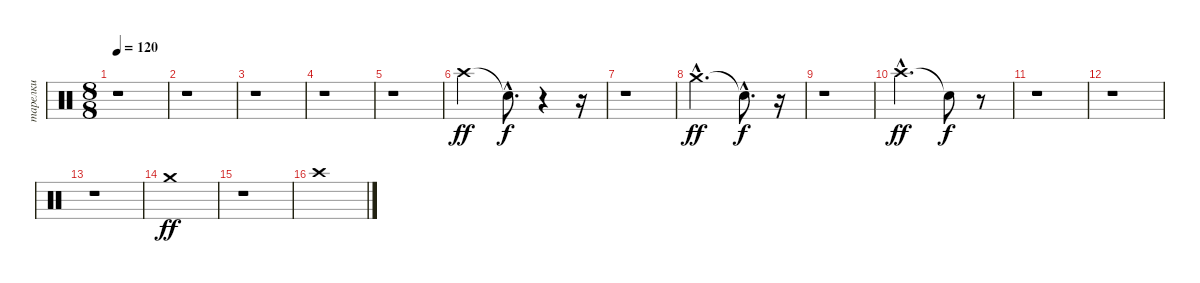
\track ("тарелки" "тарелки") {instrument percussion}
\staff {score}
\articulation defaults
\ts (8 8)
\tempo 120
\clef neutral
\ks c
r.1{dy f} |
r.1 |
r.1 |
r.1 |
r.1 |
"Crash high (hit)".2{dy ff} "Snare (hit)"{hac t}.8{d dy f} r.4 r.16 |
r.1 |
"Crash medium (hit)"{hac}.2{d dy ff} "Snare (hit)"{hac t}.8{d dy f} r.16 |
r.1 |
"Crash high (hit)"{hac}.2{d dy ff} "Snare (hit)"{t}.8{dy f} r.8 |
r.1 |
r.1 |
r.1 |
"Crash medium (hit)".1{dy ff} |
r.1 |
"Crash high (hit)".1
